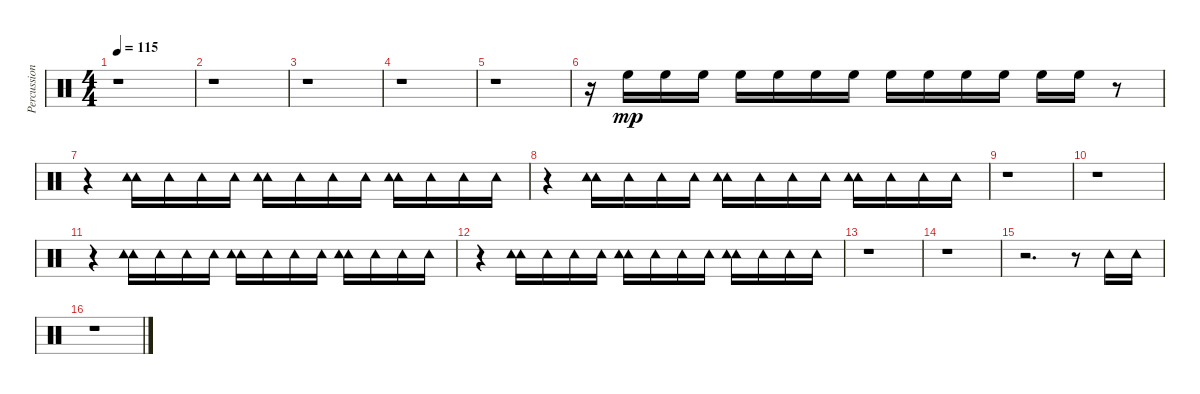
\track ("Percussions" "Percussion") {instrument percussion}
\staff {score}
\articulation defaults
\ts (4 4)
\tempo 115
\clef neutral
\ks c
r.1{dy mp} |
r.1 |
r.1 |
r.1 |
r.1 |
r.16 "High Floor Tom (hit)".16 "High Floor Tom (hit)".16 "High Floor Tom (hit)".16 "High Floor Tom (hit)".16 "High Floor Tom (hit)".16 "High Floor Tom (hit)".16 "High Floor Tom (hit)".16 "High Floor Tom (hit)".16 "High Floor Tom (hit)".16 "High Floor Tom (hit)".16 "High Floor Tom (hit)".16 "High Floor Tom (hit)".16 "High Floor Tom (hit)".16 r.8 |
r.4 ("Tambourine (hit)" "Tambourine (hit)").16 "Tambourine (hit)".16 "Tambourine (hit)".16 "Tambourine (hit)".16 ("Tambourine (hit)" "Tambourine (hit)").16 "Tambourine (hit)".16 "Tambourine (hit)".16 "Tambourine (hit)".16 ("Tambourine (hit)" "Tambourine (hit)").16 "Tambourine (hit)".16 "Tambourine (hit)".16 "Tambourine (hit)".16 |
r.4 ("Tambourine (hit)" "Tambourine (hit)").16 "Tambourine (hit)".16 "Tambourine (hit)".16 "Tambourine (hit)".16 ("Tambourine (hit)" "Tambourine (hit)").16 "Tambourine (hit)".16 "Tambourine (hit)".16 "Tambourine (hit)".16 ("Tambourine (hit)" "Tambourine (hit)").16 "Tambourine (hit)".16 "Tambourine (hit)".16 "Tambourine (hit)".16 |
r.1 |
r.1 |
r.4 ("Tambourine (hit)" "Tambourine (hit)").16 "Tambourine (hit)".16 "Tambourine (hit)".16 "Tambourine (hit)".16 ("Tambourine (hit)" "Tambourine (hit)").16 "Tambourine (hit)".16 "Tambourine (hit)".16 "Tambourine (hit)".16 ("Tambourine (hit)" "Tambourine (hit)").16 "Tambourine (hit)".16 "Tambourine (hit)".16 "Tambourine (hit)".16 |
r.4 ("Tambourine (hit)" "Tambourine (hit)").16 "Tambourine (hit)".16 "Tambourine (hit)".16 "Tambourine (hit)".16 ("Tambourine (hit)" "Tambourine (hit)").16 "Tambourine (hit)".16 "Tambourine (hit)".16 "Tambourine (hit)".16 ("Tambourine (hit)" "Tambourine (hit)").16 "Tambourine (hit)".16 "Tambourine (hit)".16 "Tambourine (hit)".16 |
r.1 |
r.1 |
r.2{d} r.8 "Tambourine (hit)".16 "Tambourine (hit)".16 |
r.1
